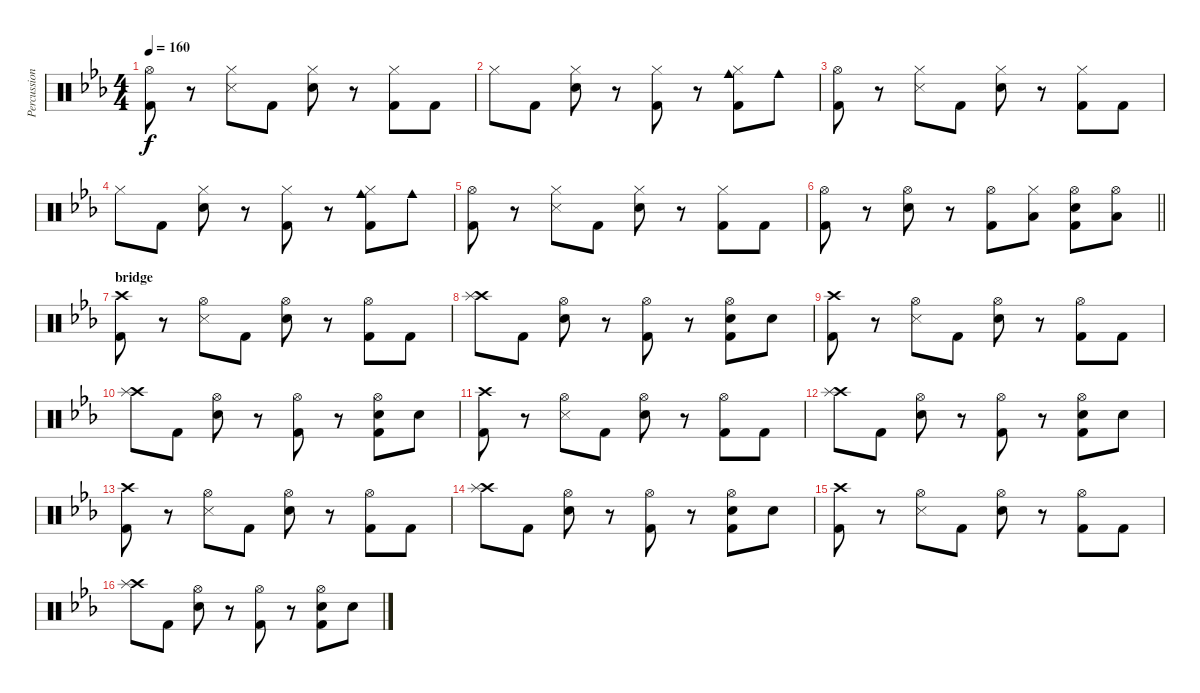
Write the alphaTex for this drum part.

\track ("Percussion" "Percussion") {instrument percussion}
\staff {score}
\articulation defaults
\ts (4 4)
\tempo 160
\clef neutral
\ks cminor
("Hi-Hat (open)" "Kick (hit) 2").8{dy f} r.8 ("Hi-Hat (closed)" "Snare (side stick) 3").8 "Kick (hit) 2".8 ("Hi-Hat (closed)" "Snare (hit) 2").8 r.8 ("Hi-Hat (closed)" "Kick (hit) 2").8 "Kick (hit) 2".8 |
"Hi-Hat (closed)".8 "Kick (hit) 2".8 ("Hi-Hat (closed)" "Snare (hit) 2").8 r.8 ("Hi-Hat (closed)" "Kick (hit) 2").8 r.8 ("Cowbell medium (hit)" "Hi-Hat (closed)" "Kick (hit) 2").8 "Cowbell medium (hit)".8 |
("Hi-Hat (open)" "Kick (hit) 2").8 r.8 ("Hi-Hat (closed)" "Snare (side stick) 3").8 "Kick (hit) 2".8 ("Hi-Hat (closed)" "Snare (hit) 2").8 r.8 ("Hi-Hat (closed)" "Kick (hit) 2").8 "Kick (hit) 2".8 |
"Hi-Hat (closed)".8 "Kick (hit) 2".8 ("Hi-Hat (closed)" "Snare (hit) 2").8 r.8 ("Hi-Hat (closed)" "Kick (hit) 2").8 r.8 ("Cowbell medium (hit)" "Hi-Hat (closed)" "Kick (hit) 2").8 "Cowbell medium (hit)".8 |
("Hi-Hat (open)" "Kick (hit) 2").8 r.8 ("Hi-Hat (closed)" "Snare (side stick) 3").8 "Kick (hit) 2".8 ("Hi-Hat (closed)" "Snare (hit) 2").8 r.8 ("Hi-Hat (closed)" "Kick (hit) 2").8 "Kick (hit) 2".8 |
\barLineRight lightlight
("Hi-Hat (open)" "Kick (hit) 2").8 r.8 ("Hi-Hat (open)" "Snare (hit) 2").8 r.8 ("Hi-Hat (open)" "Kick (hit) 2").8 ("Hi-Hat (closed)" "Low Tom (hit)").8 ("Hi-Hat (open)" "Snare (hit) 2" "Kick (hit) 2").8 ("Hi-Hat (open)" "Low Tom (hit)").8 |
\section ("" "bridge")
("Crash high (hit)" "Kick (hit) 2").8 r.8 ("Hi-Hat (open)" "Snare (side stick) 3").8 "Kick (hit) 2".8 ("Hi-Hat (open)" "Snare (hit) 2").8 r.8 ("Hi-Hat (open)" "Kick (hit) 2").8 "Kick (hit) 2".8 |
("Crash high (hit)" "Splash (hit)").8 "Kick (hit) 2".8 ("Hi-Hat (open)" "Snare (hit) 2").8 r.8 ("Hi-Hat (open)" "Kick (hit) 2").8 r.8 ("Snare (hit) 2" "Hi-Hat (open)" "Kick (hit) 2").8 "Snare (hit) 2".8 |
("Crash high (hit)" "Kick (hit) 2").8 r.8 ("Hi-Hat (open)" "Snare (side stick) 3").8 "Kick (hit) 2".8 ("Hi-Hat (open)" "Snare (hit) 2").8 r.8 ("Hi-Hat (open)" "Kick (hit) 2").8 "Kick (hit) 2".8 |
("Crash high (hit)" "Splash (hit)").8 "Kick (hit) 2".8 ("Hi-Hat (open)" "Snare (hit) 2").8 r.8 ("Hi-Hat (open)" "Kick (hit) 2").8 r.8 ("Snare (hit) 2" "Hi-Hat (open)" "Kick (hit) 2").8 "Snare (hit) 2".8 |
("Crash high (hit)" "Kick (hit) 2").8 r.8 ("Hi-Hat (open)" "Snare (side stick) 3").8 "Kick (hit) 2".8 ("Hi-Hat (open)" "Snare (hit) 2").8 r.8 ("Hi-Hat (open)" "Kick (hit) 2").8 "Kick (hit) 2".8 |
("Crash high (hit)" "Splash (hit)").8 "Kick (hit) 2".8 ("Hi-Hat (open)" "Snare (hit) 2").8 r.8 ("Hi-Hat (open)" "Kick (hit) 2").8 r.8 ("Snare (hit) 2" "Hi-Hat (open)" "Kick (hit) 2").8 "Snare (hit) 2".8 |
("Crash high (hit)" "Kick (hit) 2").8 r.8 ("Hi-Hat (open)" "Snare (side stick) 3").8 "Kick (hit) 2".8 ("Hi-Hat (open)" "Snare (hit) 2").8 r.8 ("Hi-Hat (open)" "Kick (hit) 2").8 "Kick (hit) 2".8 |
("Crash high (hit)" "Splash (hit)").8 "Kick (hit) 2".8 ("Hi-Hat (open)" "Snare (hit) 2").8 r.8 ("Hi-Hat (open)" "Kick (hit) 2").8 r.8 ("Snare (hit) 2" "Hi-Hat (open)" "Kick (hit) 2").8 "Snare (hit) 2".8 |
("Crash high (hit)" "Kick (hit) 2").8 r.8 ("Hi-Hat (open)" "Snare (side stick) 3").8 "Kick (hit) 2".8 ("Hi-Hat (open)" "Snare (hit) 2").8 r.8 ("Hi-Hat (open)" "Kick (hit) 2").8 "Kick (hit) 2".8 |
("Crash high (hit)" "Splash (hit)").8 "Kick (hit) 2".8 ("Hi-Hat (open)" "Snare (hit) 2").8 r.8 ("Hi-Hat (open)" "Kick (hit) 2").8 r.8 ("Snare (hit) 2" "Hi-Hat (open)" "Kick (hit) 2").8 "Snare (hit) 2".8
